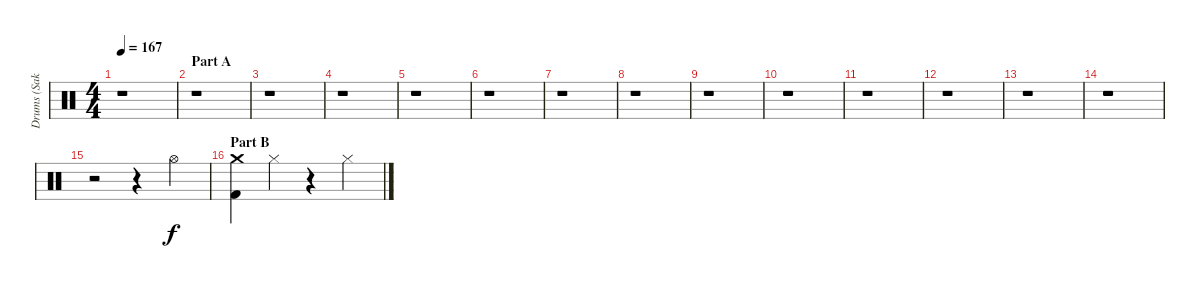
\track ("Drums (Sakura)" "Drums (Sak") {instrument percussion}
\staff {score}
\articulation defaults
\ts (4 4)
\tempo 167
\clef neutral
\ks c
r.1{dy f} |
\section ("" "Part A")
r.1 |
r.1 |
r.1 |
r.1 |
r.1 |
r.1 |
r.1 |
r.1 |
r.1 |
r.1 |
r.1 |
r.1 |
r.1 |
r.2 r.4 "Hi-Hat (open)".4 |
\section ("" "Part B")
("Crash medium (hit)" "Kick (hit) 2").4 "Hi-Hat (closed)".4 r.4 "Hi-Hat (closed)".4
